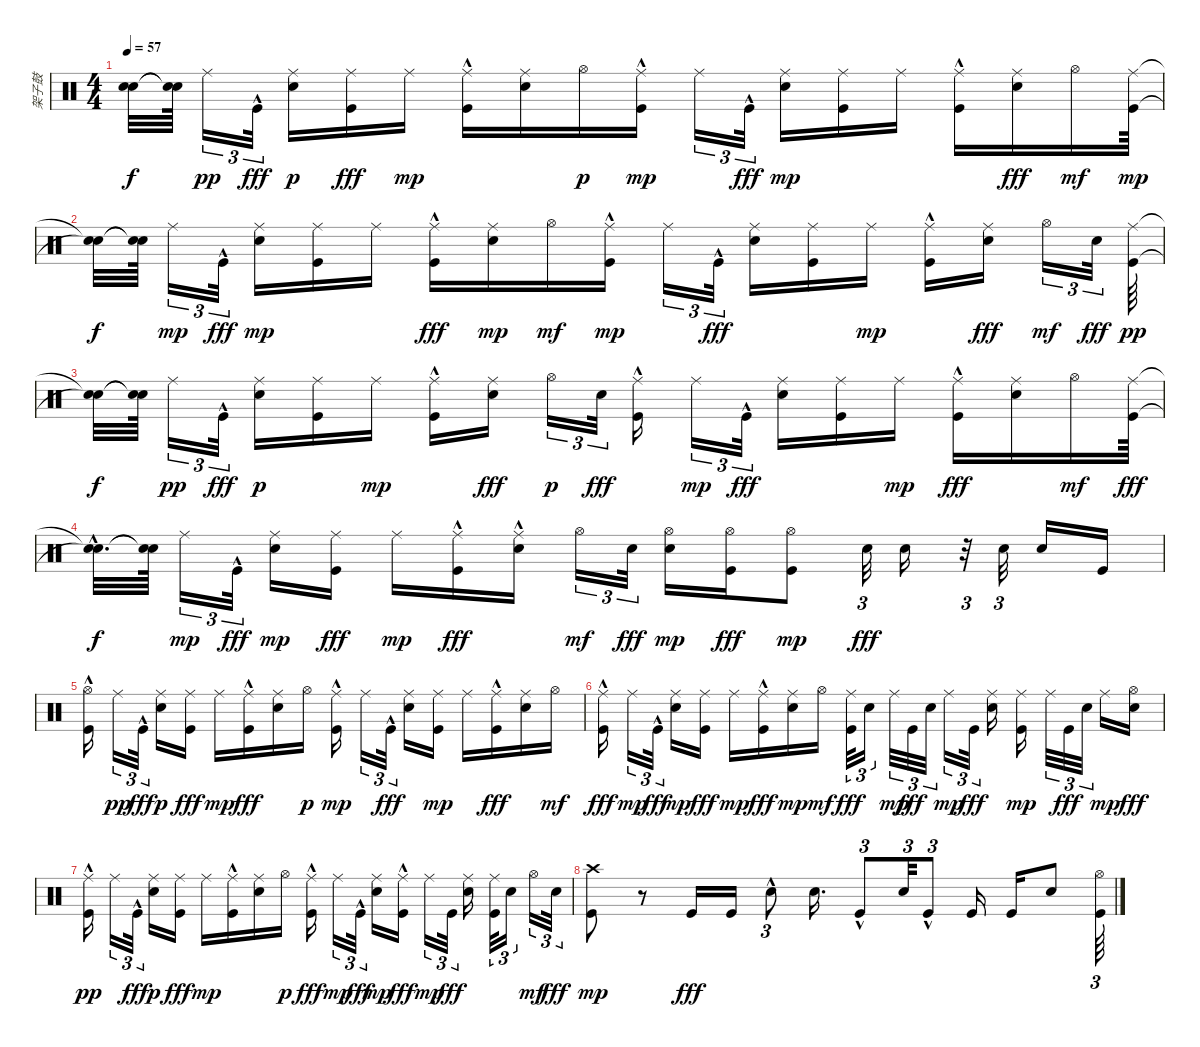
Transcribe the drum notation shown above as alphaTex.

\track ("架子鼓" "架子鼓") {instrument percussion}
\staff {score}
\articulation defaults
\ts (4 4)
\tempo 57
\clef neutral
\ks c
("Snare (hit)"{t} "Snare (hit)"{t}).32{dy f} ("Snare (hit)"{t} "Snare (hit)"{t}).64 "Ride (middle)".16{tu (3 2) dy pp} "Kick (hit)"{hac}.32{tu (3 2) dy fff} ("Electric Snare (hit)" "Ride (middle)").16{dy p} ("Ride (middle)" "Kick (hit)").16{dy fff} "Ride (middle)".16{dy mp} ("Kick (hit)"{hac} "Ride (middle)").16 ("Electric Snare (hit)" "Ride (middle)").16 "Hi-Hat (open)".16{dy p} ("Kick (hit)"{hac} "Ride (middle)").16{dy mp} "Ride (middle)".16{tu (3 2)} "Kick (hit)"{hac}.32{tu (3 2) dy fff} ("Electric Snare (hit)" "Ride (middle)").16{dy mp} ("Kick (hit)" "Ride (middle)").16 "Ride (middle)".16 ("Kick (hit)"{hac} "Ride (middle)").16 ("Ride (middle)" "Electric Snare (hit)").16{dy fff} "Hi-Hat (open)".16{dy mf} ("Kick (hit)" "Ride (middle)").64{dy mp} |
("Snare (hit)"{t} "Snare (hit)"{t}).32{dy f} ("Snare (hit)"{t} "Snare (hit)"{t}).64 "Ride (middle)".16{tu (3 2) dy mp} "Kick (hit)"{hac}.32{tu (3 2) dy fff} ("Electric Snare (hit)" "Ride (middle)").16{dy mp} ("Kick (hit)" "Ride (middle)").16 "Ride (middle)".16 ("Ride (middle)" "Kick (hit)"{hac}).16{dy fff} ("Electric Snare (hit)" "Ride (middle)").16{dy mp} "Hi-Hat (open)".16{dy mf} ("Kick (hit)"{hac} "Ride (middle)").16{dy mp} "Ride (middle)".16{tu (3 2)} "Kick (hit)"{hac}.32{tu (3 2) dy fff} ("Ride (middle)" "Electric Snare (hit)").16 ("Ride (middle)" "Kick (hit)").16 "Ride (middle)".16{dy mp} ("Kick (hit)"{hac} "Ride (middle)").16 ("Ride (middle)" "Electric Snare (hit)").16{dy fff} "Hi-Hat (open)".16{tu (3 2) dy mf} "Electric Snare (hit)".32{tu (3 2) dy fff} ("Kick (hit)" "Ride (middle)").64{dy pp} |
("Snare (hit)"{t} "Snare (hit)"{t}).32{dy f} ("Snare (hit)"{t} "Snare (hit)"{t}).64 "Ride (middle)".16{tu (3 2) dy pp} "Kick (hit)"{hac}.32{tu (3 2) dy fff} ("Electric Snare (hit)" "Ride (middle)").16{dy p} ("Kick (hit)" "Ride (middle)").16 "Ride (middle)".16{dy mp} ("Kick (hit)"{hac} "Ride (middle)").16 ("Ride (middle)" "Electric Snare (hit)").16{dy fff} "Hi-Hat (open)".16{tu (3 2) dy p} "Electric Snare (hit)".32{tu (3 2) dy fff} ("Ride (middle)" "Kick (hit)"{hac}).16 "Ride (middle)".16{tu (3 2) dy mp} "Kick (hit)"{hac}.32{tu (3 2) dy fff} ("Ride (middle)" "Electric Snare (hit)").16 ("Ride (middle)" "Kick (hit)").16 "Ride (middle)".16{dy mp} ("Ride (middle)" "Kick (hit)"{hac}).16{dy fff} ("Ride (middle)" "Electric Snare (hit)").16 "Hi-Hat (open)".16{dy mf} ("Ride (middle)" "Kick (hit)").64{dy fff} |
("Snare (hit)"{hac t} "Snare (hit)"{hac t}).32{d dy f} ("Snare (hit)"{t} "Snare (hit)"{t}).64 "Ride (middle)".16{tu (3 2) dy mp} "Kick (hit)"{hac}.32{tu (3 2) dy fff} ("Electric Snare (hit)" "Ride (middle)").16{dy mp} ("Ride (middle)" "Kick (hit)").16{dy fff} "Ride (middle)".16{dy mp} ("Ride (middle)" "Kick (hit)"{hac}).16{dy fff} ("Ride (middle)" "Electric Snare (hit)"{hac}).16 "Hi-Hat (open)".16{tu (3 2) dy mf} "Electric Snare (hit)".32{tu (3 2) dy fff} ("Electric Snare (hit)" "Hi-Hat (open)").16{dy mp} ("Hi-Hat (open)" "Kick (hit)").16{dy fff} ("Kick (hit)" "Hi-Hat (open)").8{dy mp} "Electric Snare (hit)".32{tu (3 2) dy fff} "Electric Snare (hit)".16 r.32{tu (3 2)} "Electric Snare (hit)".32{tu (3 2)} "Electric Snare (hit)".16 "Kick (hit)".16 |
("Hi-Hat (open)" "Kick (hit)"{hac}).16 "Ride (middle)".16{tu (3 2) dy pp} "Kick (hit)"{hac}.32{tu (3 2) dy fff} ("Electric Snare (hit)" "Ride (middle)").16{dy p} ("Ride (middle)" "Kick (hit)").16{dy fff} "Ride (middle)".16{dy mp} ("Ride (middle)" "Kick (hit)"{hac}).16{dy fff} ("Ride (middle)" "Electric Snare (hit)").16 "Hi-Hat (open)".16{dy p} ("Kick (hit)"{hac} "Ride (middle)").16{dy mp} "Ride (middle)".16{tu (3 2)} "Kick (hit)"{hac}.32{tu (3 2) dy fff} ("Ride (middle)" "Electric Snare (hit)").16 ("Kick (hit)" "Ride (middle)").16{dy mp} "Ride (middle)".16 ("Ride (middle)" "Kick (hit)"{hac}).16{dy fff} ("Ride (middle)" "Electric Snare (hit)").16 "Hi-Hat (open)".16{dy mf} |
("Ride (middle)" "Kick (hit)"{hac}).16{dy fff} "Ride (middle)".16{tu (3 2) dy mp} "Kick (hit)"{hac}.32{tu (3 2) dy fff} ("Electric Snare (hit)" "Ride (middle)").16{dy mp} ("Ride (middle)" "Kick (hit)").16{dy fff} "Ride (middle)".16{dy mp} ("Ride (middle)" "Kick (hit)"{hac}).16{dy fff} ("Electric Snare (hit)" "Ride (middle)").16{dy mp} "Hi-Hat (open)".16{dy mf} ("Ride (middle)" "Kick (hit)").32{tu (3 2) dy fff} "Electric Snare (hit)".16{tu (3 2)} "Ride (middle)".32{tu (3 2) dy mp} "Kick (hit)".32{tu (3 2) dy fff} "Electric Snare (hit)".32{tu (3 2)} "Ride (middle)".16{tu (3 2) dy mp} "Kick (hit)".32{tu (3 2) dy fff} ("Ride (middle)" "Electric Snare (hit)").16 ("Kick (hit)" "Ride (middle)").16{dy mp} "Ride (middle)".32{tu (3 2)} "Kick (hit)".32{tu (3 2) dy fff} "Electric Snare (hit)".32{tu (3 2)} "Ride (middle)".16{dy mp} ("Hi-Hat (open)" "Electric Snare (hit)").16{dy fff} |
("Kick (hit)"{hac} "Ride (middle)").16{dy pp} "Ride (middle)".16{tu (3 2)} "Kick (hit)"{hac}.32{tu (3 2) dy fff} ("Electric Snare (hit)" "Ride (middle)").16{dy p} ("Ride (middle)" "Kick (hit)").16{dy fff} "Ride (middle)".16{dy mp} ("Kick (hit)"{hac} "Ride (middle)").16 ("Electric Snare (hit)" "Ride (middle)").16 "Hi-Hat (open)".16{dy p} ("Ride (middle)" "Kick (hit)"{hac}).16{dy fff} "Ride (middle)".16{tu (3 2) dy mp} "Kick (hit)"{hac}.32{tu (3 2) dy fff} ("Electric Snare (hit)" "Ride (middle)").16{dy mp} ("Ride (middle)" "Kick (hit)"{hac}).16{dy fff} "Ride (middle)".16{tu (3 2) dy mp} "Kick (hit)".32{tu (3 2) dy fff} ("Ride (middle)" "Electric Snare (hit)").16 ("Ride (middle)" "Kick (hit)").32{tu (3 2)} "Electric Snare (hit)".16{tu (3 2)} "Hi-Hat (open)".16{tu (3 2) dy mf} "Electric Snare (hit)".32{tu (3 2) dy fff} |
("Kick (hit)" "Crash high (hit)").8{dy mp} r.8 "Kick (hit)".16{dy fff} "Kick (hit)".16 "Electric Snare (hit)"{hac}.8{tu (3 2)} "Electric Snare (hit)".16{d} "Kick (hit)"{hac}.8{tu (3 2)} "Electric Snare (hit)".32{tu (3 2)} "Kick (hit)"{hac}.8{tu (3 2)} "Kick (hit)".16 "Kick (hit)".16 "Electric Snare (hit)".8 ("Hi-Hat (open)" "Kick (hit)").64{tu (3 2)}
